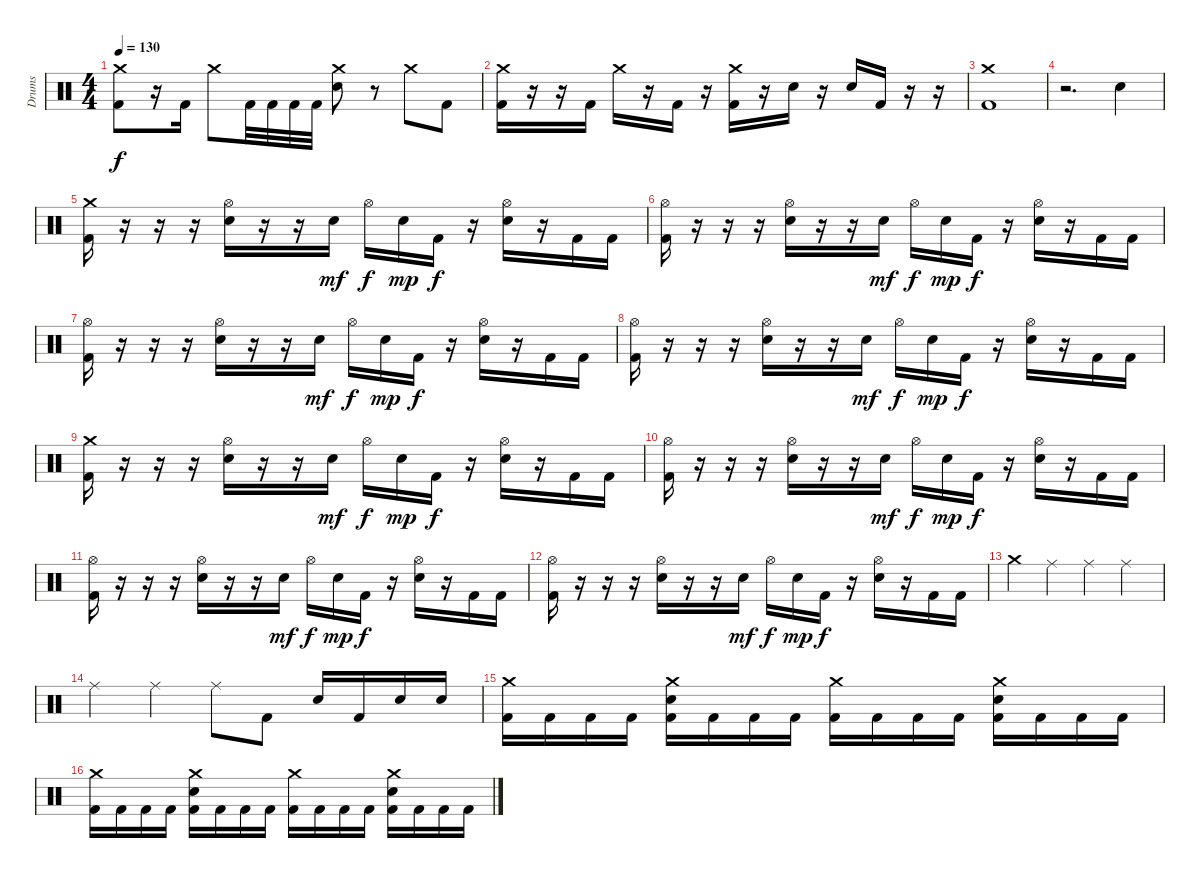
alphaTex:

\track ("Drums" "Drums") {instrument percussion}
\staff {score}
\articulation defaults
\ts (4 4)
\tempo 130
\clef neutral
\ks c
("Crash medium (hit)" "Kick (hit) 2").8{dy f} r.16 "Kick (hit) 2".16 "Crash medium (hit)".8 "Kick (hit) 2".32 "Kick (hit) 2".32 "Kick (hit) 2".32 "Kick (hit) 2".32 ("Crash medium (hit)" "Snare (hit) 2").8 r.8 "Crash medium (hit)".8 "Kick (hit) 2".8 |
("Crash medium (hit)" "Kick (hit) 2").16 r.16 r.16 "Kick (hit) 2".16 "Crash medium (hit)".16 r.16 "Kick (hit) 2".16 r.16 ("Crash medium (hit)" "Kick (hit) 2").16 r.16 "Snare (hit) 2".16 r.16 "Snare (hit) 2".16 "Kick (hit) 2".16 r.16 r.16 |
("Crash medium (hit)" "Kick (hit) 2").1 |
r.2{d} "Snare (hit) 2".4 |
("Crash medium (hit)" "Kick (hit) 2").16 r.16 r.16 r.16 ("Snare (hit) 2" "Hi-Hat (open)").16 r.16 r.16 "Snare (hit) 2".16{dy mf} "Hi-Hat (open)".16{dy f} "Snare (hit) 2".16{dy mp} "Kick (hit) 2".16{dy f} r.16 ("Snare (hit) 2" "Hi-Hat (open)").16 r.16 "Kick (hit) 2".16 "Kick (hit) 2".16 |
("Hi-Hat (open)" "Kick (hit) 2").16 r.16 r.16 r.16 ("Snare (hit) 2" "Hi-Hat (open)").16 r.16 r.16 "Snare (hit) 2".16{dy mf} "Hi-Hat (open)".16{dy f} "Snare (hit) 2".16{dy mp} "Kick (hit) 2".16{dy f} r.16 ("Snare (hit) 2" "Hi-Hat (open)").16 r.16 "Kick (hit) 2".16 "Kick (hit) 2".16 |
("Hi-Hat (open)" "Kick (hit) 2").16 r.16 r.16 r.16 ("Snare (hit) 2" "Hi-Hat (open)").16 r.16 r.16 "Snare (hit) 2".16{dy mf} "Hi-Hat (open)".16{dy f} "Snare (hit) 2".16{dy mp} "Kick (hit) 2".16{dy f} r.16 ("Snare (hit) 2" "Hi-Hat (open)").16 r.16 "Kick (hit) 2".16 "Kick (hit) 2".16 |
("Hi-Hat (open)" "Kick (hit) 2").16 r.16 r.16 r.16 ("Snare (hit) 2" "Hi-Hat (open)").16 r.16 r.16 "Snare (hit) 2".16{dy mf} "Hi-Hat (open)".16{dy f} "Snare (hit) 2".16{dy mp} "Kick (hit) 2".16{dy f} r.16 ("Snare (hit) 2" "Hi-Hat (open)").16 r.16 "Kick (hit) 2".16 "Kick (hit) 2".16 |
("Crash medium (hit)" "Kick (hit) 2").16 r.16 r.16 r.16 ("Snare (hit) 2" "Hi-Hat (open)").16 r.16 r.16 "Snare (hit) 2".16{dy mf} "Hi-Hat (open)".16{dy f} "Snare (hit) 2".16{dy mp} "Kick (hit) 2".16{dy f} r.16 ("Snare (hit) 2" "Hi-Hat (open)").16 r.16 "Kick (hit) 2".16 "Kick (hit) 2".16 |
("Hi-Hat (open)" "Kick (hit) 2").16 r.16 r.16 r.16 ("Snare (hit) 2" "Hi-Hat (open)").16 r.16 r.16 "Snare (hit) 2".16{dy mf} "Hi-Hat (open)".16{dy f} "Snare (hit) 2".16{dy mp} "Kick (hit) 2".16{dy f} r.16 ("Snare (hit) 2" "Hi-Hat (open)").16 r.16 "Kick (hit) 2".16 "Kick (hit) 2".16 |
("Hi-Hat (open)" "Kick (hit) 2").16 r.16 r.16 r.16 ("Snare (hit) 2" "Hi-Hat (open)").16 r.16 r.16 "Snare (hit) 2".16{dy mf} "Hi-Hat (open)".16{dy f} "Snare (hit) 2".16{dy mp} "Kick (hit) 2".16{dy f} r.16 ("Snare (hit) 2" "Hi-Hat (open)").16 r.16 "Kick (hit) 2".16 "Kick (hit) 2".16 |
("Hi-Hat (open)" "Kick (hit) 2").16 r.16 r.16 r.16 ("Snare (hit) 2" "Hi-Hat (open)").16 r.16 r.16 "Snare (hit) 2".16{dy mf} "Hi-Hat (open)".16{dy f} "Snare (hit) 2".16{dy mp} "Kick (hit) 2".16{dy f} r.16 ("Snare (hit) 2" "Hi-Hat (open)").16 r.16 "Kick (hit) 2".16 "Kick (hit) 2".16 |
"Crash medium (hit)".4 "Ride (middle)".4 "Ride (middle)".4 "Ride (middle)".4 |
"Ride (middle)".4 "Ride (middle)".4 "Ride (middle)".8 "Kick (hit) 2".8 "Snare (hit) 2".16 "Kick (hit) 2".16 "Snare (hit) 2".16 "Snare (hit) 2".16 |
("Crash medium (hit)" "Kick (hit) 2").16 "Kick (hit) 2".16 "Kick (hit) 2".16 "Kick (hit) 2".16 ("Crash medium (hit)" "Snare (hit) 2" "Kick (hit) 2").16 "Kick (hit) 2".16 "Kick (hit) 2".16 "Kick (hit) 2".16 ("Crash medium (hit)" "Kick (hit) 2").16 "Kick (hit) 2".16 "Kick (hit) 2".16 "Kick (hit) 2".16 ("Crash medium (hit)" "Snare (hit) 2" "Kick (hit) 2").16 "Kick (hit) 2".16 "Kick (hit) 2".16 "Kick (hit) 2".16 |
("Crash medium (hit)" "Kick (hit) 2").16 "Kick (hit) 2".16 "Kick (hit) 2".16 "Kick (hit) 2".16 ("Crash medium (hit)" "Snare (hit) 2" "Kick (hit) 2").16 "Kick (hit) 2".16 "Kick (hit) 2".16 "Kick (hit) 2".16 ("Crash medium (hit)" "Kick (hit) 2").16 "Kick (hit) 2".16 "Kick (hit) 2".16 "Kick (hit) 2".16 ("Crash medium (hit)" "Snare (hit) 2" "Kick (hit) 2").16 "Kick (hit) 2".16 "Kick (hit) 2".16 "Kick (hit) 2".16
